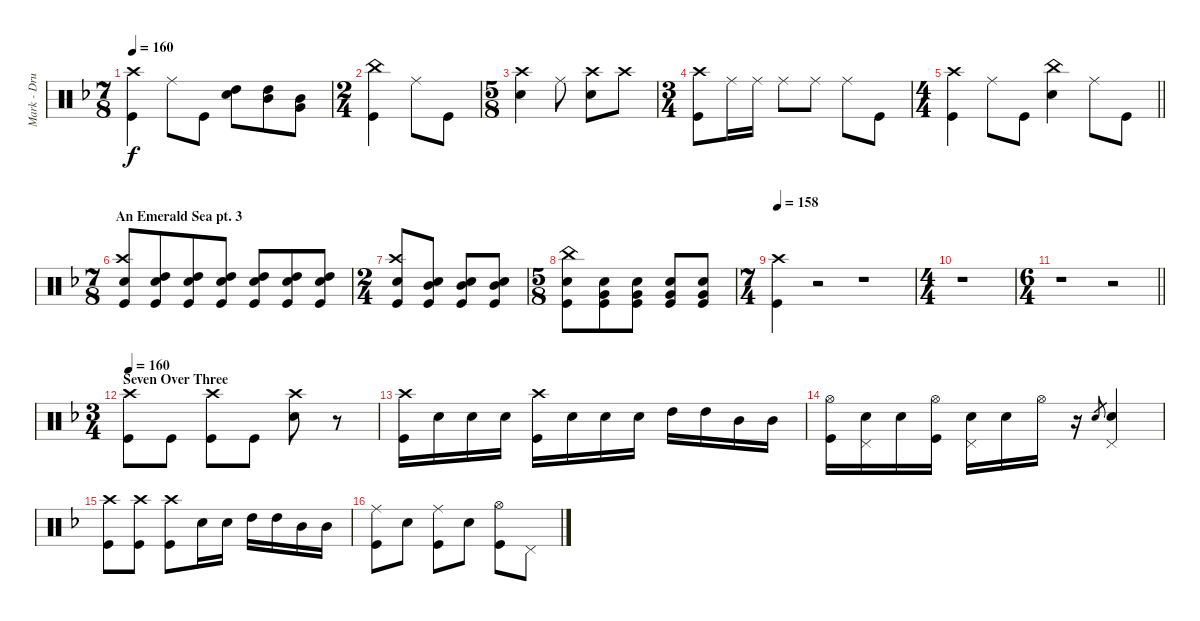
\track ("Mark - Drums" "Mark - Dru") {instrument percussion}
\staff {score}
\articulation defaults
\ts (7 8)
\tempo 160
\clef neutral
\ks dminor
("Kick (hit)" "Crash high (hit)").4{dy f} "Ride (middle)".8 "Kick (hit)".8 ("Snare (hit) 2" "High Tom (hit)").8 ("High Tom (hit)" "Mid Tom (hit)").8 ("Mid Tom (hit)" "Very Low Tom (hit)").8 |
\ts (2 4)
("Kick (hit)" "China (hit)").4 "Ride (middle)".8 "Kick (hit)".8 |
\ts (5 8)
("Snare (hit) 2" "Crash high (hit)").4 "Ride (middle)".8 ("Snare (hit) 2" "Crash high (hit)").8 "Crash high (hit)".8 |
\ts (3 4)
("Crash high (hit)" "Kick (hit)").8 "Ride (middle)".16 "Ride (middle)".16 "Ride (middle)".8 "Ride (middle)".8 "Ride (middle)".8 "Kick (hit)".8 |
\ts (4 4)
\barLineRight lightlight
("Kick (hit)" "Crash high (hit)").4 "Ride (middle)".8 "Kick (hit)".8 ("China (hit)" "Snare (hit) 2").4 "Ride (middle)".8 "Kick (hit)".8 |
\ts (7 8)
\section ("" "An Emerald Sea pt. 3")
("Snare (hit) 2" "Crash high (hit)" "Kick (hit)").8 ("Snare (hit) 2" "Kick (hit)" "High Tom (hit)").8 ("Kick (hit)" "High Tom (hit)" "Snare (hit) 2").8 ("Kick (hit)" "High Tom (hit)" "Snare (hit) 2").8 ("Kick (hit)" "High Tom (hit)" "Snare (hit) 2").8 ("Kick (hit)" "High Tom (hit)" "Snare (hit) 2").8 ("Kick (hit)" "High Tom (hit)" "Snare (hit) 2").8 |
\ts (2 4)
("Kick (hit)" "Snare (hit) 2" "Crash high (hit)").8 ("Kick (hit)" "Snare (hit) 2" "Mid Tom (hit)").8 ("Kick (hit)" "Snare (hit) 2" "Mid Tom (hit)").8 ("Kick (hit)" "Snare (hit) 2" "Mid Tom (hit)").8 |
\ts (5 8)
("Snare (hit) 2" "China (hit)" "Kick (hit)").8 ("Snare (hit) 2" "Kick (hit)" "Very Low Tom (hit)").8 ("Snare (hit) 2" "Kick (hit)" "Very Low Tom (hit)").8 ("Snare (hit) 2" "Kick (hit)" "Very Low Tom (hit)").8 ("Snare (hit) 2" "Kick (hit)" "Very Low Tom (hit)").8 |
\ts (7 4)
\tempo 158
("Kick (hit)" "Crash high (hit)").4 r.2 r.1 |
\ts (4 4)
r.1 |
\ts (6 4)
\barLineRight lightlight
r.1 r.2 |
\ts (3 4)
\section ("" "Seven Over Three")
\tempo 160
("Kick (hit)" "Crash high (hit)").8 "Kick (hit)".8 ("Crash high (hit)" "Kick (hit)").8 "Kick (hit)".8 ("Snare (hit) 2" "Crash high (hit)").8 r.8 |
("Kick (hit)" "Crash high (hit)").16 "Snare (hit) 2".16 "Snare (hit) 2".16 "Snare (hit) 2".16 ("Kick (hit)" "Crash high (hit)").16 "Snare (hit) 2".16 "Snare (hit) 2".16 "Snare (hit) 2".16 "High Tom (hit)".16 "High Tom (hit)".16 "Mid Tom (hit)".16 "Mid Tom (hit)".16 |
("Kick (hit)" "Hi-Hat (open)").16 ("Snare (hit) 2" "Pedal Hi-Hat (hit)").16 "Snare (hit) 2".16 ("Hi-Hat (open)" "Kick (hit)").16 ("Snare (hit) 2" "Pedal Hi-Hat (hit)").16 "Snare (hit) 2".16 "Hi-Hat (open)".16 r.16 "Snare (hit) 2".8{gr} ("Snare (hit) 2" "Pedal Hi-Hat (hit)").4 |
("Kick (hit)" "Crash high (hit)").8 ("Kick (hit)" "Crash high (hit)").8 ("Kick (hit)" "Crash high (hit)").8 "Snare (hit) 2".16 "Snare (hit) 2".16 "High Tom (hit)".16 "High Tom (hit)".16 "Mid Tom (hit)".16 "Mid Tom (hit)".16 |
("Kick (hit)" "Ride (middle)").8 "Snare (hit) 2".8 ("Kick (hit)" "Ride (middle)").8 "Snare (hit) 2".8 ("Kick (hit)" "Hi-Hat (open)").8 "Pedal Hi-Hat (hit)".8
